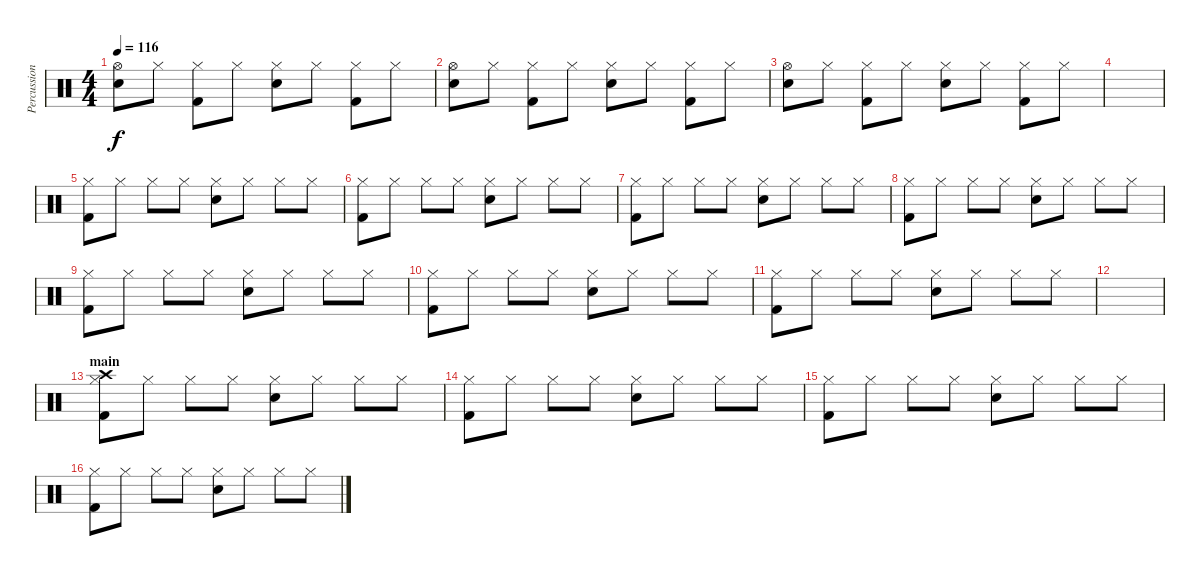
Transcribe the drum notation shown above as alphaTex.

\track ("Percussion" "Percussion") {instrument percussion}
\staff {score}
\articulation defaults
\ts (4 4)
\tempo 116
\clef neutral
\ks c
("Hi-Hat (open)" "Snare (hit) 2").8{dy f} "Hi-Hat (closed)".8 ("Hi-Hat (closed)" "Kick (hit) 2").8 "Hi-Hat (closed)".8 ("Hi-Hat (closed)" "Snare (hit) 2").8 "Hi-Hat (closed)".8 ("Hi-Hat (closed)" "Kick (hit) 2").8 "Hi-Hat (closed)".8 |
("Hi-Hat (open)" "Snare (hit) 2").8 "Hi-Hat (closed)".8 ("Hi-Hat (closed)" "Kick (hit) 2").8 "Hi-Hat (closed)".8 ("Hi-Hat (closed)" "Snare (hit) 2").8 "Hi-Hat (closed)".8 ("Hi-Hat (closed)" "Kick (hit) 2").8 "Hi-Hat (closed)".8 |
("Hi-Hat (open)" "Snare (hit) 2").8 "Hi-Hat (closed)".8 ("Hi-Hat (closed)" "Kick (hit) 2").8 "Hi-Hat (closed)".8 ("Hi-Hat (closed)" "Snare (hit) 2").8 "Hi-Hat (closed)".8 ("Hi-Hat (closed)" "Kick (hit) 2").8 "Hi-Hat (closed)".8 |
|
("Hi-Hat (closed)" "Kick (hit) 2").8 "Hi-Hat (closed)".8 "Hi-Hat (closed)".8 "Hi-Hat (closed)".8 ("Hi-Hat (closed)" "Snare (hit) 2").8 "Hi-Hat (closed)".8 "Hi-Hat (closed)".8 "Hi-Hat (closed)".8 |
("Hi-Hat (closed)" "Kick (hit) 2").8 "Hi-Hat (closed)".8 "Hi-Hat (closed)".8 "Hi-Hat (closed)".8 ("Hi-Hat (closed)" "Snare (hit) 2").8 "Hi-Hat (closed)".8 "Hi-Hat (closed)".8 "Hi-Hat (closed)".8 |
("Hi-Hat (closed)" "Kick (hit) 2").8 "Hi-Hat (closed)".8 "Hi-Hat (closed)".8 "Hi-Hat (closed)".8 ("Hi-Hat (closed)" "Snare (hit) 2").8 "Hi-Hat (closed)".8 "Hi-Hat (closed)".8 "Hi-Hat (closed)".8 |
("Hi-Hat (closed)" "Kick (hit) 2").8 "Hi-Hat (closed)".8 "Hi-Hat (closed)".8 "Hi-Hat (closed)".8 ("Hi-Hat (closed)" "Snare (hit) 2").8 "Hi-Hat (closed)".8 "Hi-Hat (closed)".8 "Hi-Hat (closed)".8 |
("Hi-Hat (closed)" "Kick (hit) 2").8 "Hi-Hat (closed)".8 "Hi-Hat (closed)".8 "Hi-Hat (closed)".8 ("Hi-Hat (closed)" "Snare (hit) 2").8 "Hi-Hat (closed)".8 "Hi-Hat (closed)".8 "Hi-Hat (closed)".8 |
("Hi-Hat (closed)" "Kick (hit) 2").8 "Hi-Hat (closed)".8 "Hi-Hat (closed)".8 "Hi-Hat (closed)".8 ("Hi-Hat (closed)" "Snare (hit) 2").8 "Hi-Hat (closed)".8 "Hi-Hat (closed)".8 "Hi-Hat (closed)".8 |
("Hi-Hat (closed)" "Kick (hit) 2").8 "Hi-Hat (closed)".8 "Hi-Hat (closed)".8 "Hi-Hat (closed)".8 ("Hi-Hat (closed)" "Snare (hit) 2").8 "Hi-Hat (closed)".8 "Hi-Hat (closed)".8 "Hi-Hat (closed)".8 |
|
\section ("" "main")
("Crash high (hit)" "Hi-Hat (closed)" "Kick (hit) 2").8 "Hi-Hat (closed)".8 "Hi-Hat (closed)".8 "Hi-Hat (closed)".8 ("Hi-Hat (closed)" "Snare (hit) 2").8 "Hi-Hat (closed)".8 "Hi-Hat (closed)".8 "Hi-Hat (closed)".8 |
("Hi-Hat (closed)" "Kick (hit) 2").8 "Hi-Hat (closed)".8 "Hi-Hat (closed)".8 "Hi-Hat (closed)".8 ("Hi-Hat (closed)" "Snare (hit) 2").8 "Hi-Hat (closed)".8 "Hi-Hat (closed)".8 "Hi-Hat (closed)".8 |
("Hi-Hat (closed)" "Kick (hit) 2").8 "Hi-Hat (closed)".8 "Hi-Hat (closed)".8 "Hi-Hat (closed)".8 ("Hi-Hat (closed)" "Snare (hit) 2").8 "Hi-Hat (closed)".8 "Hi-Hat (closed)".8 "Hi-Hat (closed)".8 |
("Hi-Hat (closed)" "Kick (hit) 2").8 "Hi-Hat (closed)".8 "Hi-Hat (closed)".8 "Hi-Hat (closed)".8 ("Hi-Hat (closed)" "Snare (hit) 2").8 "Hi-Hat (closed)".8 "Hi-Hat (closed)".8 "Hi-Hat (closed)".8
